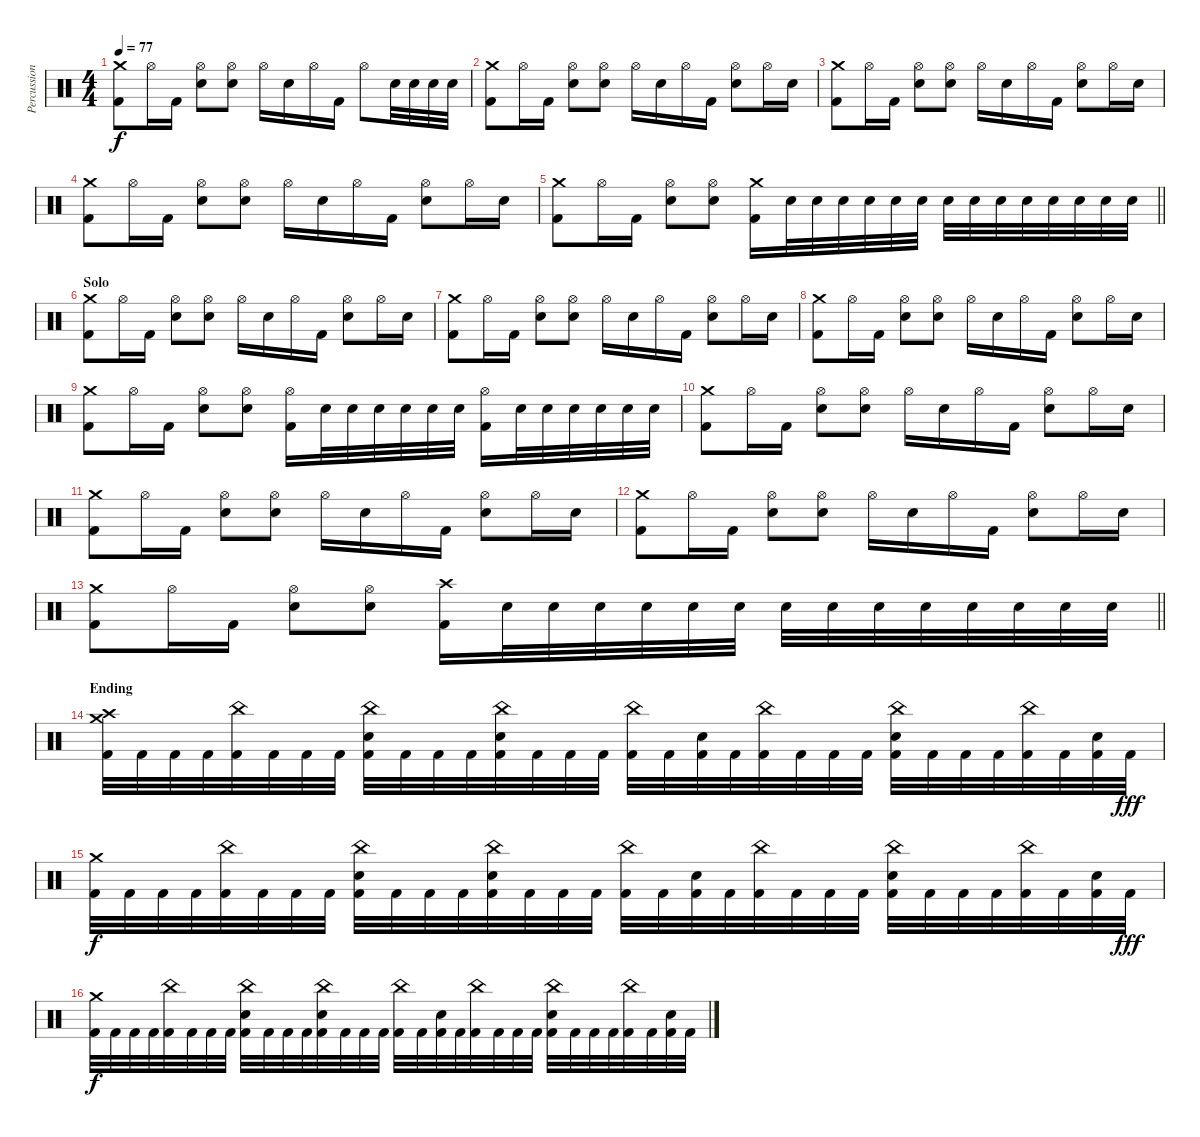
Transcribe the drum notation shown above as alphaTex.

\track ("Percussion" "Percussion") {instrument percussion}
\staff {score}
\articulation defaults
\ts (4 4)
\tempo 77
\clef neutral
\ks c
("Crash medium (hit)" "Kick (hit) 2").8{dy f} "Hi-Hat (open)".16 "Kick (hit) 2".16 ("Hi-Hat (open)" "Electric Snare (hit)").8 ("Hi-Hat (open)" "Electric Snare (hit)").8 "Hi-Hat (open)".16 "Electric Snare (hit)".16 "Hi-Hat (open)".16 "Kick (hit) 2".16 "Hi-Hat (open)".8 "Electric Snare (hit)".32 "Electric Snare (hit)".32 "Electric Snare (hit)".32 "Electric Snare (hit)".32 |
("Crash medium (hit)" "Kick (hit) 2").8 "Hi-Hat (open)".16 "Kick (hit) 2".16 ("Hi-Hat (open)" "Electric Snare (hit)").8 ("Hi-Hat (open)" "Electric Snare (hit)").8 "Hi-Hat (open)".16 "Electric Snare (hit)".16 "Hi-Hat (open)".16 "Kick (hit) 2".16 ("Hi-Hat (open)" "Electric Snare (hit)").8 "Hi-Hat (open)".16 "Electric Snare (hit)".16 |
("Crash medium (hit)" "Kick (hit) 2").8 "Hi-Hat (open)".16 "Kick (hit) 2".16 ("Hi-Hat (open)" "Electric Snare (hit)").8 ("Hi-Hat (open)" "Electric Snare (hit)").8 "Hi-Hat (open)".16 "Electric Snare (hit)".16 "Hi-Hat (open)".16 "Kick (hit) 2".16 ("Hi-Hat (open)" "Electric Snare (hit)").8 "Hi-Hat (open)".16 "Electric Snare (hit)".16 |
("Crash medium (hit)" "Kick (hit) 2").8 "Hi-Hat (open)".16 "Kick (hit) 2".16 ("Hi-Hat (open)" "Electric Snare (hit)").8 ("Hi-Hat (open)" "Electric Snare (hit)").8 "Hi-Hat (open)".16 "Electric Snare (hit)".16 "Hi-Hat (open)".16 "Kick (hit) 2".16 ("Hi-Hat (open)" "Electric Snare (hit)").8 "Hi-Hat (open)".16 "Electric Snare (hit)".16 |
\barLineRight lightlight
("Crash medium (hit)" "Kick (hit) 2").8 "Hi-Hat (open)".16 "Kick (hit) 2".16 ("Hi-Hat (open)" "Electric Snare (hit)").8 ("Hi-Hat (open)" "Electric Snare (hit)").8 ("Crash medium (hit)" "Kick (hit) 2").16 "Electric Snare (hit)".32 "Electric Snare (hit)".32 "Electric Snare (hit)".32 "Electric Snare (hit)".32 "Electric Snare (hit)".32 "Electric Snare (hit)".32 "Electric Snare (hit)".32 "Electric Snare (hit)".32 "Electric Snare (hit)".32 "Electric Snare (hit)".32 "Electric Snare (hit)".32 "Electric Snare (hit)".32 "Electric Snare (hit)".32 "Electric Snare (hit)".32 |
\section ("" "Solo")
("Crash medium (hit)" "Kick (hit) 2").8 "Hi-Hat (open)".16 "Kick (hit) 2".16 ("Hi-Hat (open)" "Electric Snare (hit)").8 ("Hi-Hat (open)" "Electric Snare (hit)").8 "Hi-Hat (open)".16 "Electric Snare (hit)".16 "Hi-Hat (open)".16 "Kick (hit) 2".16 ("Hi-Hat (open)" "Electric Snare (hit)").8 "Hi-Hat (open)".16 "Electric Snare (hit)".16 |
("Crash medium (hit)" "Kick (hit) 2").8 "Hi-Hat (open)".16 "Kick (hit) 2".16 ("Hi-Hat (open)" "Electric Snare (hit)").8 ("Hi-Hat (open)" "Electric Snare (hit)").8 "Hi-Hat (open)".16 "Electric Snare (hit)".16 "Hi-Hat (open)".16 "Kick (hit) 2".16 ("Hi-Hat (open)" "Electric Snare (hit)").8 "Hi-Hat (open)".16 "Electric Snare (hit)".16 |
("Crash medium (hit)" "Kick (hit) 2").8 "Hi-Hat (open)".16 "Kick (hit) 2".16 ("Hi-Hat (open)" "Electric Snare (hit)").8 ("Hi-Hat (open)" "Electric Snare (hit)").8 "Hi-Hat (open)".16 "Electric Snare (hit)".16 "Hi-Hat (open)".16 "Kick (hit) 2".16 ("Hi-Hat (open)" "Electric Snare (hit)").8 "Hi-Hat (open)".16 "Electric Snare (hit)".16 |
("Crash medium (hit)" "Kick (hit) 2").8 "Hi-Hat (open)".16 "Kick (hit) 2".16 ("Hi-Hat (open)" "Electric Snare (hit)").8 ("Hi-Hat (open)" "Electric Snare (hit)").8 ("Hi-Hat (open)" "Kick (hit) 2").16 "Electric Snare (hit)".32 "Electric Snare (hit)".32 "Electric Snare (hit)".32 "Electric Snare (hit)".32 "Electric Snare (hit)".32 "Electric Snare (hit)".32 ("Hi-Hat (open)" "Kick (hit) 2").16 "Electric Snare (hit)".32 "Electric Snare (hit)".32 "Electric Snare (hit)".32 "Electric Snare (hit)".32 "Electric Snare (hit)".32 "Electric Snare (hit)".32 |
("Crash medium (hit)" "Kick (hit) 2").8 "Hi-Hat (open)".16 "Kick (hit) 2".16 ("Hi-Hat (open)" "Electric Snare (hit)").8 ("Hi-Hat (open)" "Electric Snare (hit)").8 "Hi-Hat (open)".16 "Electric Snare (hit)".16 "Hi-Hat (open)".16 "Kick (hit) 2".16 ("Hi-Hat (open)" "Electric Snare (hit)").8 "Hi-Hat (open)".16 "Electric Snare (hit)".16 |
("Crash medium (hit)" "Kick (hit) 2").8 "Hi-Hat (open)".16 "Kick (hit) 2".16 ("Hi-Hat (open)" "Electric Snare (hit)").8 ("Hi-Hat (open)" "Electric Snare (hit)").8 "Hi-Hat (open)".16 "Electric Snare (hit)".16 "Hi-Hat (open)".16 "Kick (hit) 2".16 ("Hi-Hat (open)" "Electric Snare (hit)").8 "Hi-Hat (open)".16 "Electric Snare (hit)".16 |
("Crash medium (hit)" "Kick (hit) 2").8 "Hi-Hat (open)".16 "Kick (hit) 2".16 ("Hi-Hat (open)" "Electric Snare (hit)").8 ("Hi-Hat (open)" "Electric Snare (hit)").8 "Hi-Hat (open)".16 "Electric Snare (hit)".16 "Hi-Hat (open)".16 "Kick (hit) 2".16 ("Hi-Hat (open)" "Electric Snare (hit)").8 "Hi-Hat (open)".16 "Electric Snare (hit)".16 |
\barLineRight lightlight
("Crash medium (hit)" "Kick (hit) 2").8 "Hi-Hat (open)".16 "Kick (hit) 2".16 ("Hi-Hat (open)" "Electric Snare (hit)").8 ("Hi-Hat (open)" "Electric Snare (hit)").8 ("Crash high (hit)" "Kick (hit) 2").16 "Electric Snare (hit)".32 "Electric Snare (hit)".32 "Electric Snare (hit)".32 "Electric Snare (hit)".32 "Electric Snare (hit)".32 "Electric Snare (hit)".32 "Electric Snare (hit)".32 "Electric Snare (hit)".32 "Electric Snare (hit)".32 "Electric Snare (hit)".32 "Electric Snare (hit)".32 "Electric Snare (hit)".32 "Electric Snare (hit)".32 "Electric Snare (hit)".32 |
\section ("" "Ending")
("Crash medium (hit)" "Crash high (hit)" "Kick (hit) 2").32 "Kick (hit) 2".32 "Kick (hit) 2".32 "Kick (hit) 2".32 ("China (hit)" "Kick (hit) 2").32 "Kick (hit) 2".32 "Kick (hit) 2".32 "Kick (hit) 2".32 ("China (hit)" "Electric Snare (hit)" "Kick (hit) 2").32 "Kick (hit) 2".32 "Kick (hit) 2".32 "Kick (hit) 2".32 ("China (hit)" "Electric Snare (hit)" "Kick (hit) 2").32 "Kick (hit) 2".32 "Kick (hit) 2".32 "Kick (hit) 2".32 ("China (hit)" "Kick (hit) 2").32 "Kick (hit) 2".32 ("Electric Snare (hit)" "Kick (hit) 2").32 "Kick (hit) 2".32 ("China (hit)" "Kick (hit) 2").32 "Kick (hit) 2".32 "Kick (hit) 2".32 "Kick (hit) 2".32 ("China (hit)" "Electric Snare (hit)" "Kick (hit) 2").32 "Kick (hit) 2".32 "Kick (hit) 2".32 "Kick (hit) 2".32 ("China (hit)" "Kick (hit) 2").32 "Kick (hit) 2".32 ("Electric Snare (hit)" "Kick (hit) 2").32 "Kick (hit) 2".32{dy fff} |
("Crash medium (hit)" "Kick (hit) 2").32{dy f} "Kick (hit) 2".32 "Kick (hit) 2".32 "Kick (hit) 2".32 ("China (hit)" "Kick (hit) 2").32 "Kick (hit) 2".32 "Kick (hit) 2".32 "Kick (hit) 2".32 ("China (hit)" "Electric Snare (hit)" "Kick (hit) 2").32 "Kick (hit) 2".32 "Kick (hit) 2".32 "Kick (hit) 2".32 ("China (hit)" "Electric Snare (hit)" "Kick (hit) 2").32 "Kick (hit) 2".32 "Kick (hit) 2".32 "Kick (hit) 2".32 ("China (hit)" "Kick (hit) 2").32 "Kick (hit) 2".32 ("Electric Snare (hit)" "Kick (hit) 2").32 "Kick (hit) 2".32 ("China (hit)" "Kick (hit) 2").32 "Kick (hit) 2".32 "Kick (hit) 2".32 "Kick (hit) 2".32 ("China (hit)" "Electric Snare (hit)" "Kick (hit) 2").32 "Kick (hit) 2".32 "Kick (hit) 2".32 "Kick (hit) 2".32 ("China (hit)" "Kick (hit) 2").32 "Kick (hit) 2".32 ("Electric Snare (hit)" "Kick (hit) 2").32 "Kick (hit) 2".32{dy fff} |
("Crash medium (hit)" "Kick (hit) 2").32{dy f} "Kick (hit) 2".32 "Kick (hit) 2".32 "Kick (hit) 2".32 ("China (hit)" "Kick (hit) 2").32 "Kick (hit) 2".32 "Kick (hit) 2".32 "Kick (hit) 2".32 ("China (hit)" "Electric Snare (hit)" "Kick (hit) 2").32 "Kick (hit) 2".32 "Kick (hit) 2".32 "Kick (hit) 2".32 ("China (hit)" "Electric Snare (hit)" "Kick (hit) 2").32 "Kick (hit) 2".32 "Kick (hit) 2".32 "Kick (hit) 2".32 ("China (hit)" "Kick (hit) 2").32 "Kick (hit) 2".32 ("Electric Snare (hit)" "Kick (hit) 2").32 "Kick (hit) 2".32 ("China (hit)" "Kick (hit) 2").32 "Kick (hit) 2".32 "Kick (hit) 2".32 "Kick (hit) 2".32 ("China (hit)" "Electric Snare (hit)" "Kick (hit) 2").32 "Kick (hit) 2".32 "Kick (hit) 2".32 "Kick (hit) 2".32 ("China (hit)" "Kick (hit) 2").32 "Kick (hit) 2".32 ("Electric Snare (hit)" "Kick (hit) 2").32 "Kick (hit) 2".32
